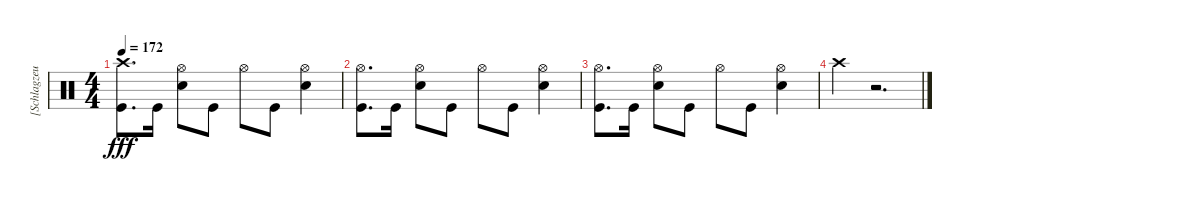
\track ("[Schlagzeug]" "[Schlagzeu") {instrument percussion}
\staff {score}
\articulation defaults
\ts (4 4)
\tempo 172
\clef neutral
\ks c
("Crash high (hit)" "Kick (hit)").8{d dy fff} "Kick (hit)".16 ("Hi-Hat (open)" "Electric Snare (hit)").8 "Kick (hit)".8 "Hi-Hat (open)".8 "Kick (hit)".8 ("Hi-Hat (open)" "Electric Snare (hit)").4 |
("Hi-Hat (open)" "Kick (hit)").8{d} "Kick (hit)".16 ("Hi-Hat (open)" "Electric Snare (hit)").8 "Kick (hit)".8 "Hi-Hat (open)".8 "Kick (hit)".8 ("Hi-Hat (open)" "Electric Snare (hit)").4 |
("Hi-Hat (open)" "Kick (hit)").8{d} "Kick (hit)".16 ("Hi-Hat (open)" "Electric Snare (hit)").8 "Kick (hit)".8 "Hi-Hat (open)".8 "Kick (hit)".8 ("Hi-Hat (open)" "Electric Snare (hit)").4 |
"Crash high (hit)".4{volume 0} r.2{d}
